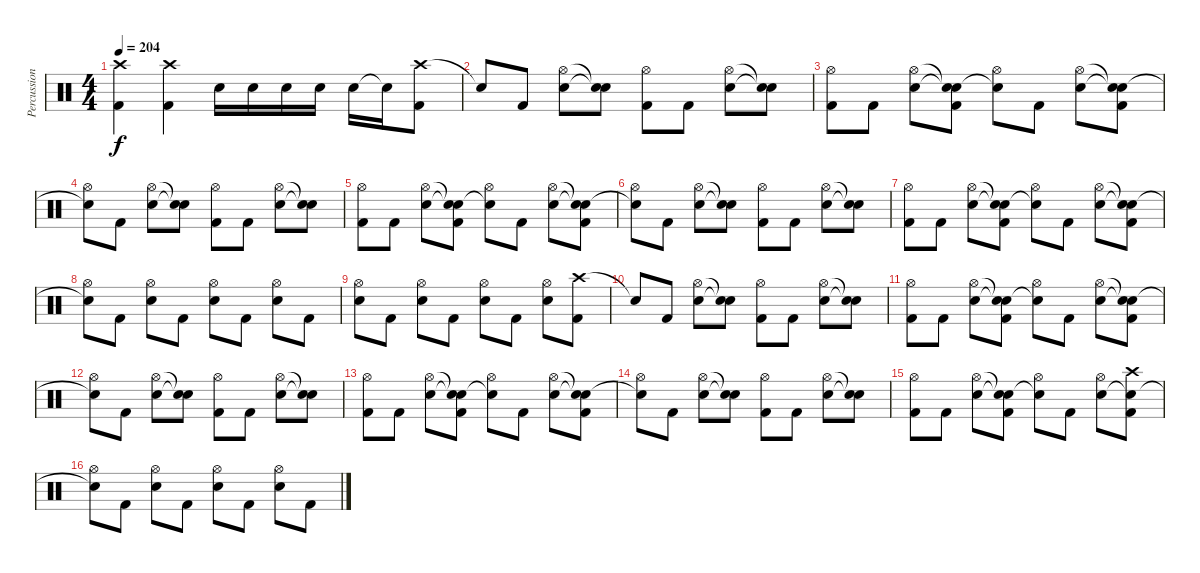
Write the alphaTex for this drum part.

\track ("Percussion" "Percussion") {instrument percussion}
\staff {score}
\articulation defaults
\ts (4 4)
\tempo 204
\clef neutral
\ks c
("Crash high (hit)" "Kick (hit) 2").4{dy f} ("Crash high (hit)" "Kick (hit) 2").4 "Electric Snare (hit)".16 "Electric Snare (hit)".16 "Electric Snare (hit)".16 "Electric Snare (hit)".16 "Electric Snare (hit)".16 "Snare (hit)"{t}.16 ("Crash high (hit)" "Kick (hit) 2").8 |
"Snare (hit)"{t}.8 "Kick (hit) 2".8 ("Hi-Hat (open)" "Electric Snare (hit)").8 ("Snare (hit)"{t} "Snare (hit)"{t}).8 ("Hi-Hat (open)" "Kick (hit) 2").8 "Kick (hit) 2".8 ("Hi-Hat (open)" "Electric Snare (hit)").8 ("Snare (hit)"{t} "Snare (hit)"{t}).8 |
("Hi-Hat (open)" "Kick (hit) 2").8 "Kick (hit) 2".8 ("Hi-Hat (open)" "Electric Snare (hit)").8 ("Snare (hit)"{t} "Snare (hit)"{t} "Kick (hit) 2").8 ("Hi-Hat (open)" "Snare (hit)"{t}).8 "Kick (hit) 2".8 ("Hi-Hat (open)" "Electric Snare (hit)").8 ("Snare (hit)"{t} "Snare (hit)"{t} "Kick (hit) 2").8 |
("Hi-Hat (open)" "Snare (hit)"{t}).8 "Kick (hit) 2".8 ("Hi-Hat (open)" "Electric Snare (hit)").8 ("Snare (hit)"{t} "Snare (hit)"{t}).8 ("Hi-Hat (open)" "Kick (hit) 2").8 "Kick (hit) 2".8 ("Hi-Hat (open)" "Electric Snare (hit)").8 ("Snare (hit)"{t} "Snare (hit)"{t}).8 |
("Hi-Hat (open)" "Kick (hit) 2").8 "Kick (hit) 2".8 ("Hi-Hat (open)" "Electric Snare (hit)").8 ("Snare (hit)"{t} "Snare (hit)"{t} "Kick (hit) 2").8 ("Hi-Hat (open)" "Snare (hit)"{t}).8 "Kick (hit) 2".8 ("Hi-Hat (open)" "Electric Snare (hit)").8 ("Snare (hit)"{t} "Snare (hit)"{t} "Kick (hit) 2").8 |
("Hi-Hat (open)" "Snare (hit)"{t}).8 "Kick (hit) 2".8 ("Hi-Hat (open)" "Electric Snare (hit)").8 ("Snare (hit)"{t} "Snare (hit)"{t}).8 ("Hi-Hat (open)" "Kick (hit) 2").8 "Kick (hit) 2".8 ("Hi-Hat (open)" "Electric Snare (hit)").8 ("Snare (hit)"{t} "Snare (hit)"{t}).8 |
("Hi-Hat (open)" "Kick (hit) 2").8 "Kick (hit) 2".8 ("Hi-Hat (open)" "Electric Snare (hit)").8 ("Snare (hit)"{t} "Snare (hit)"{t} "Kick (hit) 2").8 ("Hi-Hat (open)" "Snare (hit)"{t}).8 "Kick (hit) 2".8 ("Hi-Hat (open)" "Electric Snare (hit)").8 ("Snare (hit)"{t} "Snare (hit)"{t} "Kick (hit) 2").8 |
("Hi-Hat (open)" "Snare (hit)"{t}).8 "Kick (hit) 2".8 ("Hi-Hat (open)" "Electric Snare (hit)").8 "Kick (hit) 2".8 ("Hi-Hat (open)" "Electric Snare (hit)").8 "Kick (hit) 2".8 ("Hi-Hat (open)" "Electric Snare (hit)").8 "Kick (hit) 2".8 |
("Hi-Hat (open)" "Electric Snare (hit)").8 "Kick (hit) 2".8 ("Hi-Hat (open)" "Electric Snare (hit)").8 "Kick (hit) 2".8 ("Hi-Hat (open)" "Electric Snare (hit)").8 "Kick (hit) 2".8 ("Hi-Hat (open)" "Electric Snare (hit)").8 ("Crash high (hit)" "Kick (hit) 2").8 |
"Snare (hit)"{t}.8 "Kick (hit) 2".8 ("Hi-Hat (open)" "Electric Snare (hit)").8 ("Snare (hit)"{t} "Snare (hit)"{t}).8 ("Hi-Hat (open)" "Kick (hit) 2").8 "Kick (hit) 2".8 ("Hi-Hat (open)" "Electric Snare (hit)").8 ("Snare (hit)"{t} "Snare (hit)"{t}).8 |
("Hi-Hat (open)" "Kick (hit) 2").8 "Kick (hit) 2".8 ("Hi-Hat (open)" "Electric Snare (hit)").8 ("Snare (hit)"{t} "Snare (hit)"{t} "Kick (hit) 2").8 ("Hi-Hat (open)" "Snare (hit)"{t}).8 "Kick (hit) 2".8 ("Hi-Hat (open)" "Electric Snare (hit)").8 ("Snare (hit)"{t} "Snare (hit)"{t} "Kick (hit) 2").8 |
("Hi-Hat (open)" "Snare (hit)"{t}).8 "Kick (hit) 2".8 ("Hi-Hat (open)" "Electric Snare (hit)").8 ("Snare (hit)"{t} "Snare (hit)"{t}).8 ("Hi-Hat (open)" "Kick (hit) 2").8 "Kick (hit) 2".8 ("Hi-Hat (open)" "Electric Snare (hit)").8 ("Snare (hit)"{t} "Snare (hit)"{t}).8 |
("Hi-Hat (open)" "Kick (hit) 2").8 "Kick (hit) 2".8 ("Hi-Hat (open)" "Electric Snare (hit)").8 ("Snare (hit)"{t} "Snare (hit)"{t} "Kick (hit) 2").8 ("Hi-Hat (open)" "Snare (hit)"{t}).8 "Kick (hit) 2".8 ("Hi-Hat (open)" "Electric Snare (hit)").8 ("Snare (hit)"{t} "Snare (hit)"{t} "Kick (hit) 2").8 |
("Hi-Hat (open)" "Snare (hit)"{t}).8 "Kick (hit) 2".8 ("Hi-Hat (open)" "Electric Snare (hit)").8 ("Snare (hit)"{t} "Snare (hit)"{t}).8 ("Hi-Hat (open)" "Kick (hit) 2").8 "Kick (hit) 2".8 ("Hi-Hat (open)" "Electric Snare (hit)").8 ("Snare (hit)"{t} "Snare (hit)"{t}).8 |
("Hi-Hat (open)" "Kick (hit) 2").8 "Kick (hit) 2".8 ("Hi-Hat (open)" "Electric Snare (hit)").8 ("Snare (hit)"{t} "Snare (hit)"{t} "Kick (hit) 2").8 ("Hi-Hat (open)" "Snare (hit)"{t}).8 "Kick (hit) 2".8 ("Hi-Hat (open)" "Electric Snare (hit)").8 ("Crash high (hit)" "Snare (hit)"{t} "Kick (hit) 2").8 |
("Hi-Hat (open)" "Snare (hit)"{t}).8 "Kick (hit) 2".8 ("Hi-Hat (open)" "Electric Snare (hit)").8 "Kick (hit) 2".8 ("Hi-Hat (open)" "Electric Snare (hit)").8 "Kick (hit) 2".8 ("Hi-Hat (open)" "Electric Snare (hit)").8 "Kick (hit) 2".8
